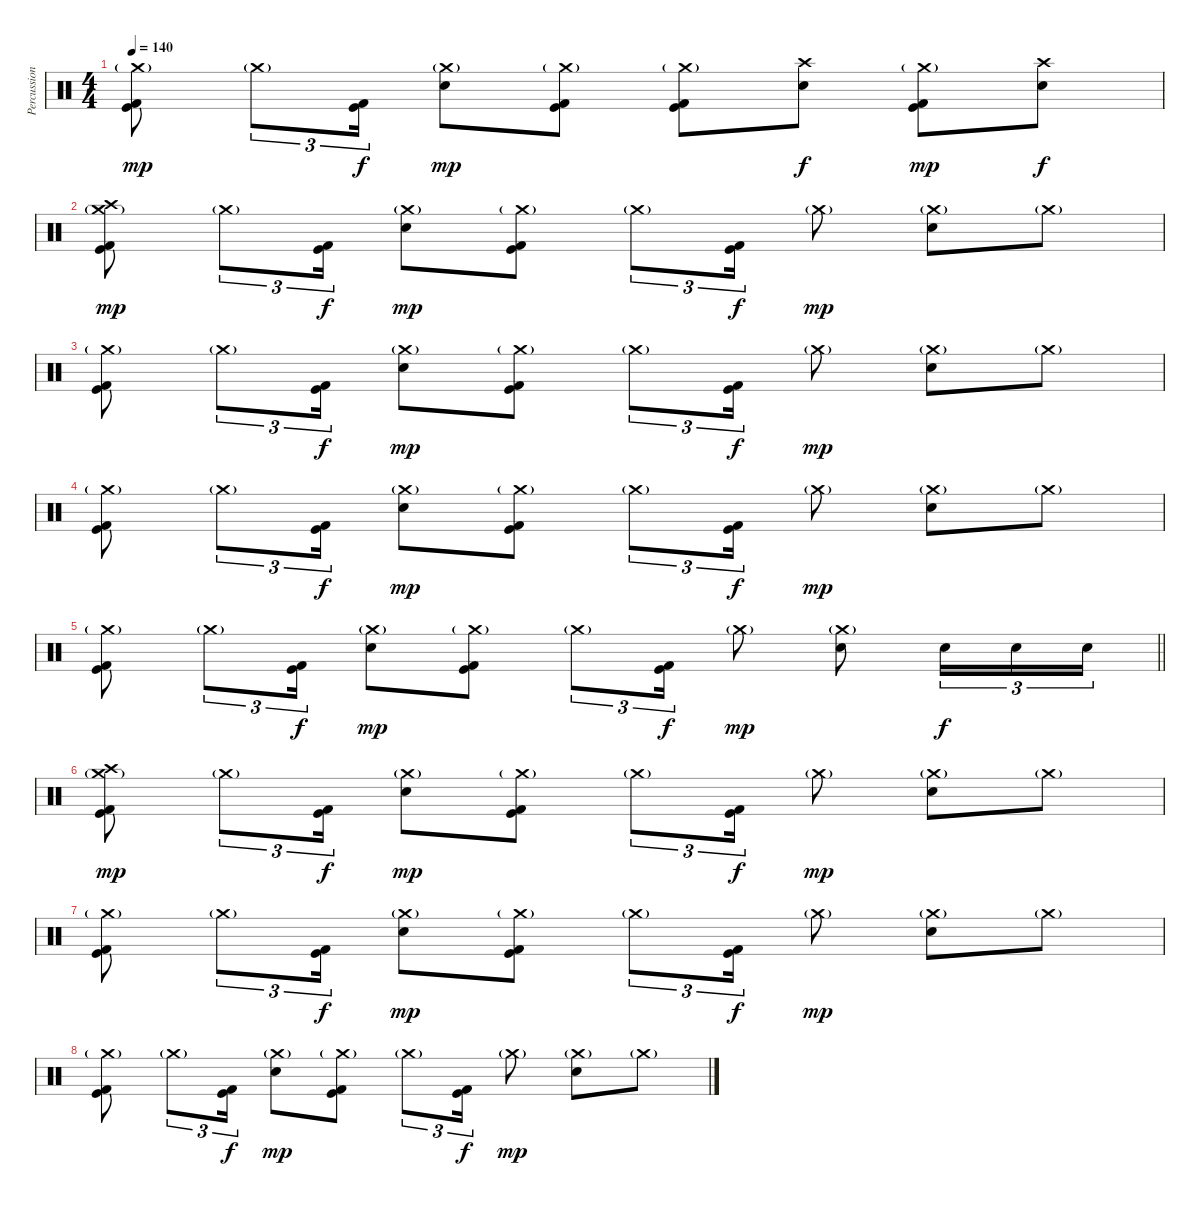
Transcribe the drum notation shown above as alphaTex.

\track ("Percussion" "Percussion") {instrument percussion}
\staff {score}
\articulation defaults
\ts (4 4)
\tempo 140
\clef neutral
\ks c
("Crash medium (hit)"{g} "Kick (hit)" "Kick (hit) 2").8{dy mp} "Crash medium (hit)"{g}.8{tu (3 2)} ("Kick (hit)" "Kick (hit) 2").16{tu (3 2) dy f} ("Crash medium (hit)"{g} "Electric Snare (hit)").8{dy mp} ("Crash medium (hit)"{g} "Kick (hit)" "Kick (hit) 2").8 ("Crash medium (hit)"{g} "Kick (hit)" "Kick (hit) 2").8 ("Crash high (hit)" "Electric Snare (hit)").8{dy f} ("Crash medium (hit)"{g} "Kick (hit)" "Kick (hit) 2").8{dy mp} ("Crash high (hit)" "Electric Snare (hit)").8{dy f} |
("Crash medium (hit)"{g} "Crash high (hit)" "Kick (hit)" "Kick (hit) 2").8{dy mp} "Crash medium (hit)"{g}.8{tu (3 2)} ("Kick (hit)" "Kick (hit) 2").16{tu (3 2) dy f} ("Crash medium (hit)"{g} "Electric Snare (hit)").8{dy mp} ("Crash medium (hit)"{g} "Kick (hit)" "Kick (hit) 2").8 "Crash medium (hit)"{g}.8{tu (3 2)} ("Kick (hit)" "Kick (hit) 2").16{tu (3 2) dy f} "Crash medium (hit)"{g}.8{dy mp} ("Crash medium (hit)"{g} "Electric Snare (hit)").8 "Crash medium (hit)"{g}.8 |
("Crash medium (hit)"{g} "Kick (hit)" "Kick (hit) 2").8 "Crash medium (hit)"{g}.8{tu (3 2)} ("Kick (hit)" "Kick (hit) 2").16{tu (3 2) dy f} ("Crash medium (hit)"{g} "Electric Snare (hit)").8{dy mp} ("Crash medium (hit)"{g} "Kick (hit)" "Kick (hit) 2").8 "Crash medium (hit)"{g}.8{tu (3 2)} ("Kick (hit)" "Kick (hit) 2").16{tu (3 2) dy f} "Crash medium (hit)"{g}.8{dy mp} ("Crash medium (hit)"{g} "Electric Snare (hit)").8 "Crash medium (hit)"{g}.8 |
("Crash medium (hit)"{g} "Kick (hit)" "Kick (hit) 2").8 "Crash medium (hit)"{g}.8{tu (3 2)} ("Kick (hit)" "Kick (hit) 2").16{tu (3 2) dy f} ("Crash medium (hit)"{g} "Electric Snare (hit)").8{dy mp} ("Crash medium (hit)"{g} "Kick (hit)" "Kick (hit) 2").8 "Crash medium (hit)"{g}.8{tu (3 2)} ("Kick (hit)" "Kick (hit) 2").16{tu (3 2) dy f} "Crash medium (hit)"{g}.8{dy mp} ("Crash medium (hit)"{g} "Electric Snare (hit)").8 "Crash medium (hit)"{g}.8 |
\barLineRight lightlight
("Crash medium (hit)"{g} "Kick (hit)" "Kick (hit) 2").8 "Crash medium (hit)"{g}.8{tu (3 2)} ("Kick (hit)" "Kick (hit) 2").16{tu (3 2) dy f} ("Crash medium (hit)"{g} "Electric Snare (hit)").8{dy mp} ("Crash medium (hit)"{g} "Kick (hit)" "Kick (hit) 2").8 "Crash medium (hit)"{g}.8{tu (3 2)} ("Kick (hit)" "Kick (hit) 2").16{tu (3 2) dy f} "Crash medium (hit)"{g}.8{dy mp} ("Crash medium (hit)"{g} "Electric Snare (hit)").8 "Electric Snare (hit)".16{tu (3 2) dy f} "Electric Snare (hit)".16{tu (3 2)} "Electric Snare (hit)".16{tu (3 2)} |
\section ("" "")
("Crash medium (hit)"{g} "Crash high (hit)" "Kick (hit)" "Kick (hit) 2").8{dy mp} "Crash medium (hit)"{g}.8{tu (3 2)} ("Kick (hit)" "Kick (hit) 2").16{tu (3 2) dy f} ("Crash medium (hit)"{g} "Electric Snare (hit)").8{dy mp} ("Crash medium (hit)"{g} "Kick (hit)" "Kick (hit) 2").8 "Crash medium (hit)"{g}.8{tu (3 2)} ("Kick (hit)" "Kick (hit) 2").16{tu (3 2) dy f} "Crash medium (hit)"{g}.8{dy mp} ("Crash medium (hit)"{g} "Electric Snare (hit)").8 "Crash medium (hit)"{g}.8 |
("Crash medium (hit)"{g} "Kick (hit)" "Kick (hit) 2").8 "Crash medium (hit)"{g}.8{tu (3 2)} ("Kick (hit)" "Kick (hit) 2").16{tu (3 2) dy f} ("Crash medium (hit)"{g} "Electric Snare (hit)").8{dy mp} ("Crash medium (hit)"{g} "Kick (hit)" "Kick (hit) 2").8 "Crash medium (hit)"{g}.8{tu (3 2)} ("Kick (hit)" "Kick (hit) 2").16{tu (3 2) dy f} "Crash medium (hit)"{g}.8{dy mp} ("Crash medium (hit)"{g} "Electric Snare (hit)").8 "Crash medium (hit)"{g}.8 |
("Crash medium (hit)"{g} "Kick (hit)" "Kick (hit) 2").8 "Crash medium (hit)"{g}.8{tu (3 2)} ("Kick (hit)" "Kick (hit) 2").16{tu (3 2) dy f} ("Crash medium (hit)"{g} "Electric Snare (hit)").8{dy mp} ("Crash medium (hit)"{g} "Kick (hit)" "Kick (hit) 2").8 "Crash medium (hit)"{g}.8{tu (3 2)} ("Kick (hit)" "Kick (hit) 2").16{tu (3 2) dy f} "Crash medium (hit)"{g}.8{dy mp} ("Crash medium (hit)"{g} "Electric Snare (hit)").8 "Crash medium (hit)"{g}.8
